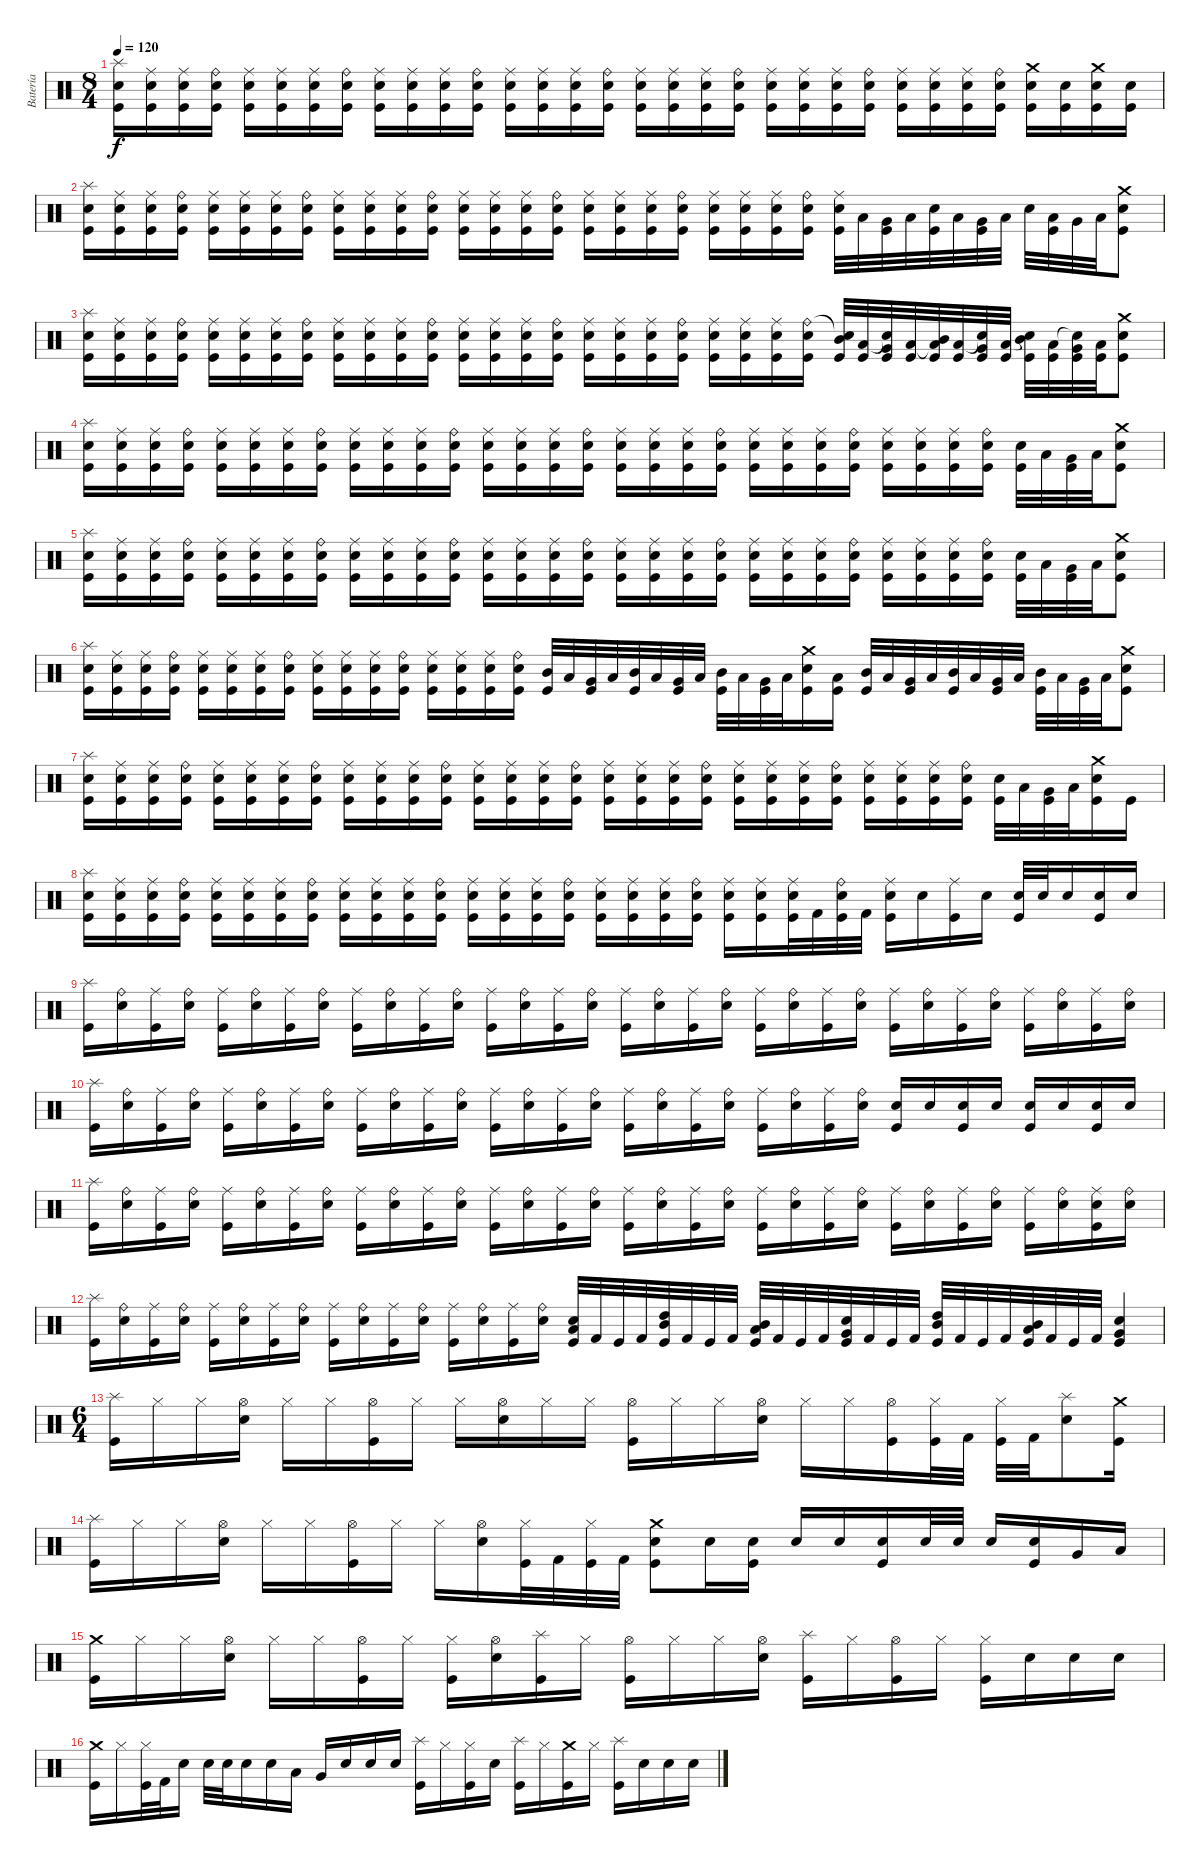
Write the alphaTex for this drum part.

\track ("Batería" "Batería") {instrument percussion}
\staff {score}
\articulation defaults
\ts (8 4)
\tempo 120
\clef neutral
\ks c
("Splash (hit)" "Electric Snare (hit)" "Kick (hit)").16{dy f} ("Ride (middle)" "Electric Snare (hit)" "Kick (hit)").16 ("Ride (middle)" "Electric Snare (hit)" "Kick (hit)").16 ("Ride (bell)" "Electric Snare (hit)" "Kick (hit)").16 ("Ride (middle)" "Electric Snare (hit)" "Kick (hit)").16 ("Ride (middle)" "Electric Snare (hit)" "Kick (hit)").16 ("Ride (middle)" "Electric Snare (hit)" "Kick (hit)").16 ("Ride (bell)" "Electric Snare (hit)" "Kick (hit)").16 ("Ride (middle)" "Electric Snare (hit)" "Kick (hit)").16 ("Ride (middle)" "Electric Snare (hit)" "Kick (hit)").16 ("Ride (middle)" "Electric Snare (hit)" "Kick (hit)").16 ("Ride (bell)" "Electric Snare (hit)" "Kick (hit)").16 ("Ride (middle)" "Electric Snare (hit)" "Kick (hit)").16 ("Ride (middle)" "Electric Snare (hit)" "Kick (hit)").16 ("Ride (middle)" "Electric Snare (hit)" "Kick (hit)").16 ("Ride (bell)" "Electric Snare (hit)" "Kick (hit)").16 ("Ride (middle)" "Electric Snare (hit)" "Kick (hit)").16 ("Ride (middle)" "Electric Snare (hit)" "Kick (hit)").16 ("Ride (middle)" "Electric Snare (hit)" "Kick (hit)").16 ("Ride (bell)" "Electric Snare (hit)" "Kick (hit)").16 ("Ride (middle)" "Electric Snare (hit)" "Kick (hit)").16 ("Ride (middle)" "Electric Snare (hit)" "Kick (hit)").16 ("Ride (middle)" "Electric Snare (hit)" "Kick (hit)").16 ("Ride (bell)" "Electric Snare (hit)" "Kick (hit)").16 ("Ride (middle)" "Electric Snare (hit)" "Kick (hit)").16 ("Ride (middle)" "Electric Snare (hit)" "Kick (hit)").16 ("Ride (middle)" "Electric Snare (hit)" "Kick (hit)").16 ("Ride (bell)" "Electric Snare (hit)" "Kick (hit)").16 ("Crash medium (hit)" "Electric Snare (hit)" "Kick (hit)").16 ("Electric Snare (hit)" "Kick (hit)").16 ("Crash medium (hit)" "Electric Snare (hit)" "Kick (hit)").16 ("Electric Snare (hit)" "Kick (hit)").16 |
("Splash (hit)" "Electric Snare (hit)" "Kick (hit)").16 ("Ride (middle)" "Electric Snare (hit)" "Kick (hit)").16 ("Ride (middle)" "Electric Snare (hit)" "Kick (hit)").16 ("Ride (bell)" "Electric Snare (hit)" "Kick (hit)").16 ("Ride (middle)" "Electric Snare (hit)" "Kick (hit)").16 ("Ride (middle)" "Electric Snare (hit)" "Kick (hit)").16 ("Ride (middle)" "Electric Snare (hit)" "Kick (hit)").16 ("Ride (bell)" "Electric Snare (hit)" "Kick (hit)").16 ("Ride (middle)" "Electric Snare (hit)" "Kick (hit)").16 ("Ride (middle)" "Electric Snare (hit)" "Kick (hit)").16 ("Ride (middle)" "Electric Snare (hit)" "Kick (hit)").16 ("Ride (bell)" "Electric Snare (hit)" "Kick (hit)").16 ("Ride (middle)" "Electric Snare (hit)" "Kick (hit)").16 ("Ride (middle)" "Electric Snare (hit)" "Kick (hit)").16 ("Ride (middle)" "Electric Snare (hit)" "Kick (hit)").16 ("Ride (bell)" "Electric Snare (hit)" "Kick (hit)").16 ("Ride (middle)" "Electric Snare (hit)" "Kick (hit)").16 ("Ride (middle)" "Electric Snare (hit)" "Kick (hit)").16 ("Ride (middle)" "Electric Snare (hit)" "Kick (hit)").16 ("Ride (bell)" "Electric Snare (hit)" "Kick (hit)").16 ("Ride (middle)" "Electric Snare (hit)" "Kick (hit)").16 ("Ride (middle)" "Electric Snare (hit)" "Kick (hit)").16 ("Ride (middle)" "Electric Snare (hit)" "Kick (hit)").16 ("Ride (bell)" "Electric Snare (hit)" "Kick (hit)").16 ("Ride (middle)" "Electric Snare (hit)" "Kick (hit)").32 "Low Tom (hit)".32 ("Very Low Tom (hit)" "Kick (hit)").32 "Low Floor Tom (hit)".32 ("Electric Snare (hit)" "Kick (hit)").32 "Low Tom (hit)".32 ("Very Low Tom (hit)" "Kick (hit)").32 "Low Floor Tom (hit)".32 "Electric Snare (hit)".32 ("Low Tom (hit)" "Kick (hit)").32 "Very Low Tom (hit)".32 "Low Floor Tom (hit)".32 ("Crash medium (hit)" "Electric Snare (hit)" "Kick (hit)").8 |
("Splash (hit)" "Electric Snare (hit)" "Kick (hit)").16 ("Ride (middle)" "Electric Snare (hit)" "Kick (hit)").16 ("Ride (middle)" "Electric Snare (hit)" "Kick (hit)").16 ("Ride (bell)" "Electric Snare (hit)" "Kick (hit)").16 ("Ride (middle)" "Electric Snare (hit)" "Kick (hit)").16 ("Ride (middle)" "Electric Snare (hit)" "Kick (hit)").16 ("Ride (middle)" "Electric Snare (hit)" "Kick (hit)").16 ("Ride (bell)" "Electric Snare (hit)" "Kick (hit)").16 ("Ride (middle)" "Electric Snare (hit)" "Kick (hit)").16 ("Ride (middle)" "Electric Snare (hit)" "Kick (hit)").16 ("Ride (middle)" "Electric Snare (hit)" "Kick (hit)").16 ("Ride (bell)" "Electric Snare (hit)" "Kick (hit)").16 ("Ride (middle)" "Electric Snare (hit)" "Kick (hit)").16 ("Ride (middle)" "Electric Snare (hit)" "Kick (hit)").16 ("Ride (middle)" "Electric Snare (hit)" "Kick (hit)").16 ("Ride (bell)" "Electric Snare (hit)" "Kick (hit)").16 ("Ride (middle)" "Electric Snare (hit)" "Kick (hit)").16 ("Ride (middle)" "Electric Snare (hit)" "Kick (hit)").16 ("Ride (middle)" "Electric Snare (hit)" "Kick (hit)").16 ("Ride (bell)" "Electric Snare (hit)" "Kick (hit)").16 ("Ride (middle)" "Electric Snare (hit)" "Kick (hit)").16 ("Ride (middle)" "Electric Snare (hit)" "Kick (hit)").16 ("Ride (middle)" "Electric Snare (hit)" "Kick (hit)").16 ("Ride (bell)" "Electric Snare (hit)" "Kick (hit)").16 ("Snare (hit)"{t} "Mid Tom (hit)" "Kick (hit)").32 ("Low Tom (hit)" "Kick (hit)").32 ("Snare (hit)"{t} "Very Low Tom (hit)" "Kick (hit)").32 ("Low Floor Tom (hit)" "Kick (hit)").32 ("Low Tom (hit)"{t} "Mid Tom (hit)" "Kick (hit)").32 ("Low Tom (hit)" "Kick (hit)").32 ("Snare (hit)"{t} "Very Low Tom (hit)" "Kick (hit)").32 ("Low Floor Tom (hit)" "Kick (hit)").32 ("Snare (hit)"{t} "Mid Tom (hit)" "Kick (hit)").32 ("Low Tom (hit)" "Kick (hit)").32 ("Snare (hit)"{t} "Very Low Tom (hit)" "Kick (hit)").32 ("Low Floor Tom (hit)" "Kick (hit)").32 ("Crash medium (hit)" "Electric Snare (hit)" "Kick (hit)").8 |
("Splash (hit)" "Electric Snare (hit)" "Kick (hit)").16 ("Ride (middle)" "Electric Snare (hit)" "Kick (hit)").16 ("Ride (middle)" "Electric Snare (hit)" "Kick (hit)").16 ("Ride (bell)" "Electric Snare (hit)" "Kick (hit)").16 ("Ride (middle)" "Electric Snare (hit)" "Kick (hit)").16 ("Ride (middle)" "Electric Snare (hit)" "Kick (hit)").16 ("Ride (middle)" "Electric Snare (hit)" "Kick (hit)").16 ("Ride (bell)" "Electric Snare (hit)" "Kick (hit)").16 ("Ride (middle)" "Electric Snare (hit)" "Kick (hit)").16 ("Ride (middle)" "Electric Snare (hit)" "Kick (hit)").16 ("Ride (middle)" "Electric Snare (hit)" "Kick (hit)").16 ("Ride (bell)" "Electric Snare (hit)" "Kick (hit)").16 ("Ride (middle)" "Electric Snare (hit)" "Kick (hit)").16 ("Ride (middle)" "Electric Snare (hit)" "Kick (hit)").16 ("Ride (middle)" "Electric Snare (hit)" "Kick (hit)").16 ("Ride (bell)" "Electric Snare (hit)" "Kick (hit)").16 ("Ride (middle)" "Electric Snare (hit)" "Kick (hit)").16 ("Ride (middle)" "Electric Snare (hit)" "Kick (hit)").16 ("Ride (middle)" "Electric Snare (hit)" "Kick (hit)").16 ("Ride (bell)" "Electric Snare (hit)" "Kick (hit)").16 ("Ride (middle)" "Electric Snare (hit)" "Kick (hit)").16 ("Ride (middle)" "Electric Snare (hit)" "Kick (hit)").16 ("Ride (middle)" "Electric Snare (hit)" "Kick (hit)").16 ("Ride (bell)" "Electric Snare (hit)" "Kick (hit)").16 ("Ride (middle)" "Electric Snare (hit)" "Kick (hit)").16 ("Ride (middle)" "Electric Snare (hit)" "Kick (hit)").16 ("Ride (middle)" "Electric Snare (hit)" "Kick (hit)").16 ("Ride (bell)" "Electric Snare (hit)" "Kick (hit)").16 ("Electric Snare (hit)" "Kick (hit)").32 "Low Tom (hit)".32 ("Very Low Tom (hit)" "Kick (hit)").32 "Low Floor Tom (hit)".32 ("Crash medium (hit)" "Electric Snare (hit)" "Kick (hit)").8 |
("Splash (hit)" "Electric Snare (hit)" "Kick (hit)").16 ("Ride (middle)" "Electric Snare (hit)" "Kick (hit)").16 ("Ride (middle)" "Electric Snare (hit)" "Kick (hit)").16 ("Ride (bell)" "Electric Snare (hit)" "Kick (hit)").16 ("Ride (middle)" "Electric Snare (hit)" "Kick (hit)").16 ("Ride (middle)" "Electric Snare (hit)" "Kick (hit)").16 ("Ride (middle)" "Electric Snare (hit)" "Kick (hit)").16 ("Ride (bell)" "Electric Snare (hit)" "Kick (hit)").16 ("Ride (middle)" "Electric Snare (hit)" "Kick (hit)").16 ("Ride (middle)" "Electric Snare (hit)" "Kick (hit)").16 ("Ride (middle)" "Electric Snare (hit)" "Kick (hit)").16 ("Ride (bell)" "Electric Snare (hit)" "Kick (hit)").16 ("Ride (middle)" "Electric Snare (hit)" "Kick (hit)").16 ("Ride (middle)" "Electric Snare (hit)" "Kick (hit)").16 ("Ride (middle)" "Electric Snare (hit)" "Kick (hit)").16 ("Ride (bell)" "Electric Snare (hit)" "Kick (hit)").16 ("Ride (middle)" "Electric Snare (hit)" "Kick (hit)").16 ("Ride (middle)" "Electric Snare (hit)" "Kick (hit)").16 ("Ride (middle)" "Electric Snare (hit)" "Kick (hit)").16 ("Ride (bell)" "Electric Snare (hit)" "Kick (hit)").16 ("Ride (middle)" "Electric Snare (hit)" "Kick (hit)").16 ("Ride (middle)" "Electric Snare (hit)" "Kick (hit)").16 ("Ride (middle)" "Electric Snare (hit)" "Kick (hit)").16 ("Ride (bell)" "Electric Snare (hit)" "Kick (hit)").16 ("Ride (middle)" "Electric Snare (hit)" "Kick (hit)").16 ("Ride (middle)" "Electric Snare (hit)" "Kick (hit)").16 ("Ride (middle)" "Electric Snare (hit)" "Kick (hit)").16 ("Ride (bell)" "Electric Snare (hit)" "Kick (hit)").16 ("Electric Snare (hit)" "Kick (hit)").32 "Low Tom (hit)".32 ("Very Low Tom (hit)" "Kick (hit)").32 "Low Floor Tom (hit)".32 ("Crash medium (hit)" "Electric Snare (hit)" "Kick (hit)").8 |
("Splash (hit)" "Electric Snare (hit)" "Kick (hit)").16 ("Ride (middle)" "Electric Snare (hit)" "Kick (hit)").16 ("Ride (middle)" "Electric Snare (hit)" "Kick (hit)").16 ("Ride (bell)" "Electric Snare (hit)" "Kick (hit)").16 ("Ride (middle)" "Electric Snare (hit)" "Kick (hit)").16 ("Ride (middle)" "Electric Snare (hit)" "Kick (hit)").16 ("Ride (middle)" "Electric Snare (hit)" "Kick (hit)").16 ("Ride (bell)" "Electric Snare (hit)" "Kick (hit)").16 ("Ride (middle)" "Electric Snare (hit)" "Kick (hit)").16 ("Ride (middle)" "Electric Snare (hit)" "Kick (hit)").16 ("Ride (middle)" "Electric Snare (hit)" "Kick (hit)").16 ("Ride (bell)" "Electric Snare (hit)" "Kick (hit)").16 ("Ride (middle)" "Electric Snare (hit)" "Kick (hit)").16 ("Ride (middle)" "Electric Snare (hit)" "Kick (hit)").16 ("Ride (middle)" "Electric Snare (hit)" "Kick (hit)").16 ("Ride (bell)" "Electric Snare (hit)" "Kick (hit)").16 ("Mid Tom (hit)" "Kick (hit)").32 "Low Tom (hit)".32 ("Very Low Tom (hit)" "Kick (hit)").32 "Low Floor Tom (hit)".32 ("Mid Tom (hit)" "Kick (hit)").32 "Low Tom (hit)".32 ("Very Low Tom (hit)" "Kick (hit)").32 "Low Floor Tom (hit)".32 ("Mid Tom (hit)" "Kick (hit)").32 "Low Tom (hit)".32 ("Very Low Tom (hit)" "Kick (hit)").32 "Low Floor Tom (hit)".32 ("Crash medium (hit)" "Electric Snare (hit)" "Kick (hit)").16 ("Low Floor Tom (hit)" "Kick (hit)").16 ("Mid Tom (hit)" "Kick (hit)").32 "Low Tom (hit)".32 ("Very Low Tom (hit)" "Kick (hit)").32 "Low Floor Tom (hit)".32 ("Mid Tom (hit)" "Kick (hit)").32 "Low Tom (hit)".32 ("Very Low Tom (hit)" "Kick (hit)").32 "Low Floor Tom (hit)".32 ("Mid Tom (hit)" "Kick (hit)").32 "Low Tom (hit)".32 ("Very Low Tom (hit)" "Kick (hit)").32 "Low Floor Tom (hit)".32 ("Crash medium (hit)" "Electric Snare (hit)" "Kick (hit)").8 |
("Splash (hit)" "Electric Snare (hit)" "Kick (hit)").16 ("Ride (middle)" "Electric Snare (hit)" "Kick (hit)").16 ("Ride (middle)" "Electric Snare (hit)" "Kick (hit)").16 ("Ride (bell)" "Electric Snare (hit)" "Kick (hit)").16 ("Ride (middle)" "Electric Snare (hit)" "Kick (hit)").16 ("Ride (middle)" "Electric Snare (hit)" "Kick (hit)").16 ("Ride (middle)" "Electric Snare (hit)" "Kick (hit)").16 ("Ride (bell)" "Electric Snare (hit)" "Kick (hit)").16 ("Ride (middle)" "Electric Snare (hit)" "Kick (hit)").16 ("Ride (middle)" "Electric Snare (hit)" "Kick (hit)").16 ("Ride (middle)" "Electric Snare (hit)" "Kick (hit)").16 ("Ride (bell)" "Electric Snare (hit)" "Kick (hit)").16 ("Ride (middle)" "Electric Snare (hit)" "Kick (hit)").16 ("Ride (middle)" "Electric Snare (hit)" "Kick (hit)").16 ("Ride (middle)" "Electric Snare (hit)" "Kick (hit)").16 ("Ride (bell)" "Electric Snare (hit)" "Kick (hit)").16 ("Ride (middle)" "Electric Snare (hit)" "Kick (hit)").16 ("Ride (middle)" "Electric Snare (hit)" "Kick (hit)").16 ("Ride (middle)" "Electric Snare (hit)" "Kick (hit)").16 ("Ride (bell)" "Electric Snare (hit)" "Kick (hit)").16 ("Ride (middle)" "Electric Snare (hit)" "Kick (hit)").16 ("Ride (middle)" "Electric Snare (hit)" "Kick (hit)").16 ("Ride (middle)" "Electric Snare (hit)" "Kick (hit)").16 ("Ride (bell)" "Electric Snare (hit)" "Kick (hit)").16 ("Ride (middle)" "Electric Snare (hit)" "Kick (hit)").16 ("Ride (middle)" "Electric Snare (hit)" "Kick (hit)").16 ("Ride (middle)" "Electric Snare (hit)" "Kick (hit)").16 ("Ride (bell)" "Electric Snare (hit)" "Kick (hit)").16 ("Electric Snare (hit)" "Kick (hit)").32 "Low Tom (hit)".32 ("Very Low Tom (hit)" "Kick (hit)").32 "Low Floor Tom (hit)".32 ("Crash medium (hit)" "Electric Snare (hit)" "Kick (hit)").16 "Kick (hit)".16 |
("Splash (hit)" "Electric Snare (hit)" "Kick (hit)").16 ("Ride (middle)" "Electric Snare (hit)" "Kick (hit)").16 ("Ride (middle)" "Electric Snare (hit)" "Kick (hit)").16 ("Ride (bell)" "Electric Snare (hit)" "Kick (hit)").16 ("Ride (middle)" "Electric Snare (hit)" "Kick (hit)").16 ("Ride (middle)" "Electric Snare (hit)" "Kick (hit)").16 ("Ride (middle)" "Electric Snare (hit)" "Kick (hit)").16 ("Ride (bell)" "Electric Snare (hit)" "Kick (hit)").16 ("Ride (middle)" "Electric Snare (hit)" "Kick (hit)").16 ("Ride (middle)" "Electric Snare (hit)" "Kick (hit)").16 ("Ride (middle)" "Electric Snare (hit)" "Kick (hit)").16 ("Ride (bell)" "Electric Snare (hit)" "Kick (hit)").16 ("Ride (middle)" "Electric Snare (hit)" "Kick (hit)").16 ("Ride (middle)" "Electric Snare (hit)" "Kick (hit)").16 ("Ride (middle)" "Electric Snare (hit)" "Kick (hit)").16 ("Ride (bell)" "Electric Snare (hit)" "Kick (hit)").16 ("Ride (middle)" "Electric Snare (hit)" "Kick (hit)").16 ("Ride (middle)" "Electric Snare (hit)" "Kick (hit)").16 ("Ride (middle)" "Electric Snare (hit)" "Kick (hit)").16 ("Ride (bell)" "Electric Snare (hit)" "Kick (hit)").16 ("Ride (middle)" "Electric Snare (hit)" "Kick (hit)").16 ("Ride (middle)" "Electric Snare (hit)" "Kick (hit)").16 ("Ride (middle)" "Electric Snare (hit)" "Kick (hit)").32 "Kick (hit) 2".32 ("Ride (bell)" "Electric Snare (hit)" "Kick (hit)").32 "Kick (hit) 2".32 ("Ride (middle)" "Electric Snare (hit)" "Kick (hit)").16 "Electric Snare (hit)".16 ("Ride (middle)" "Kick (hit)").16 "Electric Snare (hit)".16 ("Electric Snare (hit)" "Kick (hit)").32 "Electric Snare (hit)".32 "Electric Snare (hit)".16 ("Electric Snare (hit)" "Kick (hit)").16 "Electric Snare (hit)".16 |
("Splash (hit)" "Kick (hit)").16 ("Ride (bell)" "Electric Snare (hit)").16 ("Ride (middle)" "Kick (hit)").16 ("Ride (bell)" "Electric Snare (hit)").16 ("Ride (middle)" "Kick (hit)").16 ("Ride (bell)" "Electric Snare (hit)").16 ("Ride (middle)" "Kick (hit)").16 ("Ride (bell)" "Electric Snare (hit)").16 ("Ride (middle)" "Kick (hit)").16 ("Ride (bell)" "Electric Snare (hit)").16 ("Ride (middle)" "Kick (hit)").16 ("Ride (bell)" "Electric Snare (hit)").16 ("Ride (middle)" "Kick (hit)").16 ("Ride (bell)" "Electric Snare (hit)").16 ("Ride (middle)" "Kick (hit)").16 ("Ride (bell)" "Electric Snare (hit)").16 ("Ride (middle)" "Kick (hit)").16 ("Ride (bell)" "Electric Snare (hit)").16 ("Ride (middle)" "Kick (hit)").16 ("Ride (bell)" "Electric Snare (hit)").16 ("Ride (middle)" "Kick (hit)").16 ("Ride (bell)" "Electric Snare (hit)").16 ("Ride (middle)" "Kick (hit)").16 ("Ride (bell)" "Electric Snare (hit)").16 ("Ride (middle)" "Kick (hit)").16 ("Ride (bell)" "Electric Snare (hit)").16 ("Ride (middle)" "Kick (hit)").16 ("Ride (bell)" "Electric Snare (hit)").16 ("Ride (middle)" "Kick (hit)").16 ("Ride (bell)" "Electric Snare (hit)").16 ("Ride (middle)" "Kick (hit)").16 ("Ride (bell)" "Electric Snare (hit)").16 |
("Splash (hit)" "Kick (hit)").16 ("Ride (bell)" "Electric Snare (hit)").16 ("Ride (middle)" "Kick (hit)").16 ("Ride (bell)" "Electric Snare (hit)").16 ("Ride (middle)" "Kick (hit)").16 ("Ride (bell)" "Electric Snare (hit)").16 ("Ride (middle)" "Kick (hit)").16 ("Ride (bell)" "Electric Snare (hit)").16 ("Ride (middle)" "Kick (hit)").16 ("Ride (bell)" "Electric Snare (hit)").16 ("Ride (middle)" "Kick (hit)").16 ("Ride (bell)" "Electric Snare (hit)").16 ("Ride (middle)" "Kick (hit)").16 ("Ride (bell)" "Electric Snare (hit)").16 ("Ride (middle)" "Kick (hit)").16 ("Ride (bell)" "Electric Snare (hit)").16 ("Ride (middle)" "Kick (hit)").16 ("Ride (bell)" "Electric Snare (hit)").16 ("Ride (middle)" "Kick (hit)").16 ("Ride (bell)" "Electric Snare (hit)").16 ("Ride (middle)" "Kick (hit)").16 ("Ride (bell)" "Electric Snare (hit)").16 ("Ride (middle)" "Kick (hit)").16 ("Ride (bell)" "Electric Snare (hit)").16 ("Electric Snare (hit)" "Kick (hit)").16 "Electric Snare (hit)".16 ("Electric Snare (hit)" "Kick (hit)").16 "Electric Snare (hit)".16 ("Electric Snare (hit)" "Kick (hit)").16 "Electric Snare (hit)".16 ("Electric Snare (hit)" "Kick (hit)").16 "Electric Snare (hit)".16 |
("Splash (hit)" "Kick (hit)").16 ("Ride (bell)" "Electric Snare (hit)").16 ("Ride (middle)" "Kick (hit)").16 ("Ride (bell)" "Electric Snare (hit)").16 ("Ride (middle)" "Kick (hit)").16 ("Ride (bell)" "Electric Snare (hit)").16 ("Ride (middle)" "Kick (hit)").16 ("Ride (bell)" "Electric Snare (hit)").16 ("Ride (middle)" "Kick (hit)").16 ("Ride (bell)" "Electric Snare (hit)").16 ("Ride (middle)" "Kick (hit)").16 ("Ride (bell)" "Electric Snare (hit)").16 ("Ride (middle)" "Kick (hit)").16 ("Ride (bell)" "Electric Snare (hit)").16 ("Ride (middle)" "Kick (hit)").16 ("Ride (bell)" "Electric Snare (hit)").16 ("Ride (middle)" "Kick (hit)").16 ("Ride (bell)" "Electric Snare (hit)").16 ("Ride (middle)" "Kick (hit)").16 ("Ride (bell)" "Electric Snare (hit)").16 ("Ride (middle)" "Kick (hit)").16 ("Ride (bell)" "Electric Snare (hit)").16 ("Ride (middle)" "Kick (hit)").16 ("Ride (bell)" "Electric Snare (hit)").16 ("Ride (middle)" "Kick (hit)").16 ("Ride (bell)" "Electric Snare (hit)").16 ("Ride (middle)" "Kick (hit)").16 ("Ride (bell)" "Electric Snare (hit)").16 ("Ride (middle)" "Kick (hit)").16 ("Ride (bell)" "Electric Snare (hit)").16 ("Ride (middle)" "Electric Snare (hit)" "Kick (hit)").16 ("Ride (bell)" "Electric Snare (hit)").16 |
("Splash (hit)" "Kick (hit)").16 ("Ride (bell)" "Electric Snare (hit)").16 ("Ride (middle)" "Kick (hit)").16 ("Ride (bell)" "Electric Snare (hit)").16 ("Ride (middle)" "Kick (hit)").16 ("Ride (bell)" "Electric Snare (hit)").16 ("Ride (middle)" "Kick (hit)").16 ("Ride (bell)" "Electric Snare (hit)").16 ("Ride (middle)" "Kick (hit)").16 ("Ride (bell)" "Electric Snare (hit)").16 ("Ride (middle)" "Kick (hit)").16 ("Ride (bell)" "Electric Snare (hit)").16 ("Ride (middle)" "Kick (hit)").16 ("Ride (bell)" "Electric Snare (hit)").16 ("Ride (middle)" "Kick (hit)").16 ("Ride (bell)" "Electric Snare (hit)").16 ("Low Floor Tom (hit)" "Electric Snare (hit)" "Kick (hit)").32 "Kick (hit) 2".32 "Kick (hit)".32 "Kick (hit) 2".32 ("High Tom (hit)" "Mid Tom (hit)" "Kick (hit)").32 "Kick (hit) 2".32 "Kick (hit)".32 "Kick (hit) 2".32 ("Mid Tom (hit)" "Low Tom (hit)" "Kick (hit)").32 "Kick (hit) 2".32 "Kick (hit)".32 "Kick (hit) 2".32 ("Very Low Tom (hit)" "Electric Snare (hit)" "Kick (hit)").32 "Kick (hit) 2".32 "Kick (hit)".32 "Kick (hit) 2".32 ("High Tom (hit)" "Mid Tom (hit)" "Kick (hit)").32 "Kick (hit) 2".32 "Kick (hit)".32 "Kick (hit) 2".32 ("Mid Tom (hit)" "Low Tom (hit)" "Kick (hit)").32 "Kick (hit) 2".32 "Kick (hit)".32 "Kick (hit) 2".32 ("Very Low Tom (hit)" "Electric Snare (hit)" "Kick (hit)").4 |
\ts (6 4)
("Splash (hit)" "Kick (hit)").16 "Hi-Hat (closed)".16 "Hi-Hat (closed)".16 ("Hi-Hat (open)" "Electric Snare (hit)").16 "Hi-Hat (closed)".16 "Hi-Hat (closed)".16 ("Hi-Hat (open)" "Kick (hit)").16 "Hi-Hat (closed)".16 "Hi-Hat (closed)".16 ("Hi-Hat (open)" "Electric Snare (hit)").16 "Hi-Hat (closed)".16 "Hi-Hat (closed)".16 ("Hi-Hat (open)" "Kick (hit)").16 "Hi-Hat (closed)".16 "Hi-Hat (closed)".16 ("Hi-Hat (open)" "Electric Snare (hit)").16 "Hi-Hat (closed)".16 "Hi-Hat (closed)".16 ("Hi-Hat (open)" "Kick (hit)").16 ("Hi-Hat (closed)" "Kick (hit)").32 "Kick (hit) 2".32 ("Hi-Hat (closed)" "Kick (hit)").32 "Kick (hit) 2".32 ("Splash (hit)" "Electric Snare (hit)").8 ("Crash medium (hit)" "Kick (hit)").16 |
("Splash (hit)" "Kick (hit)").16 "Hi-Hat (closed)".16 "Hi-Hat (closed)".16 ("Hi-Hat (open)" "Electric Snare (hit)").16 "Hi-Hat (closed)".16 "Hi-Hat (closed)".16 ("Hi-Hat (open)" "Kick (hit)").16 "Hi-Hat (closed)".16 "Hi-Hat (closed)".16 ("Hi-Hat (open)" "Electric Snare (hit)").16 ("Hi-Hat (closed)" "Kick (hit)").32 "Kick (hit) 2".32 ("Hi-Hat (closed)" "Kick (hit)").32 "Kick (hit) 2".32 ("Crash medium (hit)" "Electric Snare (hit)" "Kick (hit)").8 "Electric Snare (hit)".16 ("Electric Snare (hit)" "Kick (hit)").16 "Electric Snare (hit)".16 "Electric Snare (hit)".16 ("Electric Snare (hit)" "Kick (hit)").16 "Electric Snare (hit)".32 "Electric Snare (hit)".32 "Electric Snare (hit)".16 ("Electric Snare (hit)" "Kick (hit)").16 "Very Low Tom (hit)".16 "Low Floor Tom (hit)".16 |
("Crash medium (hit)" "Kick (hit)").16 "Hi-Hat (closed)".16 "Hi-Hat (closed)".16 ("Hi-Hat (open)" "Electric Snare (hit)").16 "Hi-Hat (closed)".16 "Hi-Hat (closed)".16 ("Hi-Hat (open)" "Kick (hit)").16 "Hi-Hat (closed)".16 ("Hi-Hat (closed)" "Kick (hit)").16 ("Hi-Hat (open)" "Electric Snare (hit)").16 ("Splash (hit)" "Kick (hit)").16 "Hi-Hat (closed)".16 ("Hi-Hat (open)" "Kick (hit)").16 "Hi-Hat (closed)".16 "Hi-Hat (closed)".16 ("Hi-Hat (open)" "Electric Snare (hit)").16 ("Splash (hit)" "Kick (hit)").16 "Hi-Hat (closed)".16 ("Hi-Hat (open)" "Kick (hit)").16 "Hi-Hat (closed)".16 ("Hi-Hat (closed)" "Kick (hit)").16 "Electric Snare (hit)".16 "Electric Snare (hit)".16 "Electric Snare (hit)".16 |
("Crash medium (hit)" "Kick (hit)").16 "Hi-Hat (closed)".16 ("Hi-Hat (closed)" "Kick (hit)").32 "Kick (hit) 2".32 "Electric Snare (hit)".16 "Electric Snare (hit)".32 "Electric Snare (hit)".32 "Electric Snare (hit)".16 "Electric Snare (hit)".16 "Low Tom (hit)".16 "Very Low Tom (hit)".16 "Electric Snare (hit)".16 "Electric Snare (hit)".16 "Electric Snare (hit)".16 ("Splash (hit)" "Kick (hit)").16 "Hi-Hat (closed)".16 ("Hi-Hat (closed)" "Kick (hit)").16 "Electric Snare (hit)".16 ("Splash (hit)" "Kick (hit)").16 "Hi-Hat (closed)".16 ("Crash medium (hit)" "Kick (hit)").16 "Hi-Hat (closed)".16 ("Splash (hit)" "Kick (hit)").16 "Electric Snare (hit)".16 "Electric Snare (hit)".16 "Electric Snare (hit)".16
